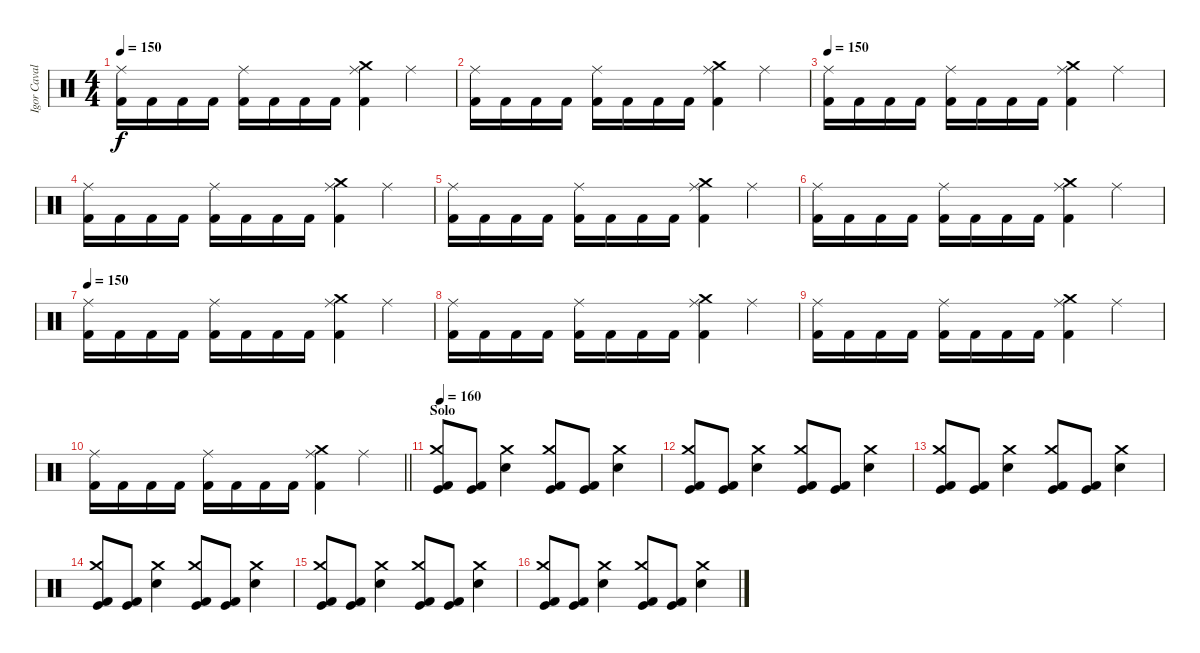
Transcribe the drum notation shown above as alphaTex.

\track ("Igor Cavalera" "Igor Caval") {instrument percussion}
\staff {score}
\articulation defaults
\ts (4 4)
\tempo 150
\clef neutral
\ks c
("Ride (middle)" "Kick (hit) 2").16{dy f} "Kick (hit) 2".16 "Kick (hit) 2".16 "Kick (hit) 2".16 ("Ride (middle)" "Kick (hit) 2").16 "Kick (hit) 2".16 "Kick (hit) 2".16 "Kick (hit) 2".16 ("Crash medium (hit)" "Ride (middle)" "Kick (hit) 2").4 "Ride (middle)".4 |
("Ride (middle)" "Kick (hit) 2").16 "Kick (hit) 2".16 "Kick (hit) 2".16 "Kick (hit) 2".16 ("Ride (middle)" "Kick (hit) 2").16 "Kick (hit) 2".16 "Kick (hit) 2".16 "Kick (hit) 2".16 ("Crash medium (hit)" "Ride (middle)" "Kick (hit) 2").4 "Ride (middle)".4 |
\tempo 150
("Ride (middle)" "Kick (hit) 2").16 "Kick (hit) 2".16 "Kick (hit) 2".16 "Kick (hit) 2".16 ("Ride (middle)" "Kick (hit) 2").16 "Kick (hit) 2".16 "Kick (hit) 2".16 "Kick (hit) 2".16 ("Crash medium (hit)" "Ride (middle)" "Kick (hit) 2").4 "Ride (middle)".4 |
("Ride (middle)" "Kick (hit) 2").16 "Kick (hit) 2".16 "Kick (hit) 2".16 "Kick (hit) 2".16 ("Ride (middle)" "Kick (hit) 2").16 "Kick (hit) 2".16 "Kick (hit) 2".16 "Kick (hit) 2".16 ("Crash medium (hit)" "Ride (middle)" "Kick (hit) 2").4 "Ride (middle)".4 |
("Ride (middle)" "Kick (hit) 2").16 "Kick (hit) 2".16 "Kick (hit) 2".16 "Kick (hit) 2".16 ("Ride (middle)" "Kick (hit) 2").16 "Kick (hit) 2".16 "Kick (hit) 2".16 "Kick (hit) 2".16 ("Crash medium (hit)" "Ride (middle)" "Kick (hit) 2").4 "Ride (middle)".4 |
("Ride (middle)" "Kick (hit) 2").16 "Kick (hit) 2".16 "Kick (hit) 2".16 "Kick (hit) 2".16 ("Ride (middle)" "Kick (hit) 2").16 "Kick (hit) 2".16 "Kick (hit) 2".16 "Kick (hit) 2".16 ("Crash medium (hit)" "Ride (middle)" "Kick (hit) 2").4 "Ride (middle)".4 |
\tempo 150
("Ride (middle)" "Kick (hit) 2").16 "Kick (hit) 2".16 "Kick (hit) 2".16 "Kick (hit) 2".16 ("Ride (middle)" "Kick (hit) 2").16 "Kick (hit) 2".16 "Kick (hit) 2".16 "Kick (hit) 2".16 ("Crash medium (hit)" "Ride (middle)" "Kick (hit) 2").4 "Ride (middle)".4 |
("Ride (middle)" "Kick (hit) 2").16 "Kick (hit) 2".16 "Kick (hit) 2".16 "Kick (hit) 2".16 ("Ride (middle)" "Kick (hit) 2").16 "Kick (hit) 2".16 "Kick (hit) 2".16 "Kick (hit) 2".16 ("Crash medium (hit)" "Ride (middle)" "Kick (hit) 2").4 "Ride (middle)".4 |
("Ride (middle)" "Kick (hit) 2").16 "Kick (hit) 2".16 "Kick (hit) 2".16 "Kick (hit) 2".16 ("Ride (middle)" "Kick (hit) 2").16 "Kick (hit) 2".16 "Kick (hit) 2".16 "Kick (hit) 2".16 ("Crash medium (hit)" "Ride (middle)" "Kick (hit) 2").4 "Ride (middle)".4 |
\barLineRight lightlight
("Ride (middle)" "Kick (hit) 2").16 "Kick (hit) 2".16 "Kick (hit) 2".16 "Kick (hit) 2".16 ("Ride (middle)" "Kick (hit) 2").16 "Kick (hit) 2".16 "Kick (hit) 2".16 "Kick (hit) 2".16 ("Crash medium (hit)" "Ride (middle)" "Kick (hit) 2").4 "Ride (middle)".4 |
\section ("" "Solo")
\tempo 160
("Crash medium (hit)" "Kick (hit)" "Kick (hit) 2").8 ("Kick (hit)" "Kick (hit) 2").8 ("Crash medium (hit)" "Snare (hit) 2").4 ("Crash medium (hit)" "Kick (hit)" "Kick (hit) 2").8 ("Kick (hit)" "Kick (hit) 2").8 ("Crash medium (hit)" "Snare (hit) 2").4 |
("Crash medium (hit)" "Kick (hit)" "Kick (hit) 2").8 ("Kick (hit)" "Kick (hit) 2").8 ("Crash medium (hit)" "Snare (hit) 2").4 ("Crash medium (hit)" "Kick (hit)" "Kick (hit) 2").8 ("Kick (hit)" "Kick (hit) 2").8 ("Crash medium (hit)" "Snare (hit) 2").4 |
("Crash medium (hit)" "Kick (hit)" "Kick (hit) 2").8 ("Kick (hit)" "Kick (hit) 2").8 ("Crash medium (hit)" "Snare (hit) 2").4 ("Crash medium (hit)" "Kick (hit)" "Kick (hit) 2").8 ("Kick (hit)" "Kick (hit) 2").8 ("Crash medium (hit)" "Snare (hit) 2").4 |
("Crash medium (hit)" "Kick (hit)" "Kick (hit) 2").8 ("Kick (hit)" "Kick (hit) 2").8 ("Crash medium (hit)" "Snare (hit) 2").4 ("Crash medium (hit)" "Kick (hit)" "Kick (hit) 2").8 ("Kick (hit)" "Kick (hit) 2").8 ("Crash medium (hit)" "Snare (hit) 2").4 |
("Crash medium (hit)" "Kick (hit)" "Kick (hit) 2").8 ("Kick (hit)" "Kick (hit) 2").8 ("Crash medium (hit)" "Snare (hit) 2").4 ("Crash medium (hit)" "Kick (hit)" "Kick (hit) 2").8 ("Kick (hit)" "Kick (hit) 2").8 ("Crash medium (hit)" "Snare (hit) 2").4 |
("Crash medium (hit)" "Kick (hit)" "Kick (hit) 2").8 ("Kick (hit)" "Kick (hit) 2").8 ("Crash medium (hit)" "Snare (hit) 2").4 ("Crash medium (hit)" "Kick (hit)" "Kick (hit) 2").8 ("Kick (hit)" "Kick (hit) 2").8 ("Crash medium (hit)" "Snare (hit) 2").4
